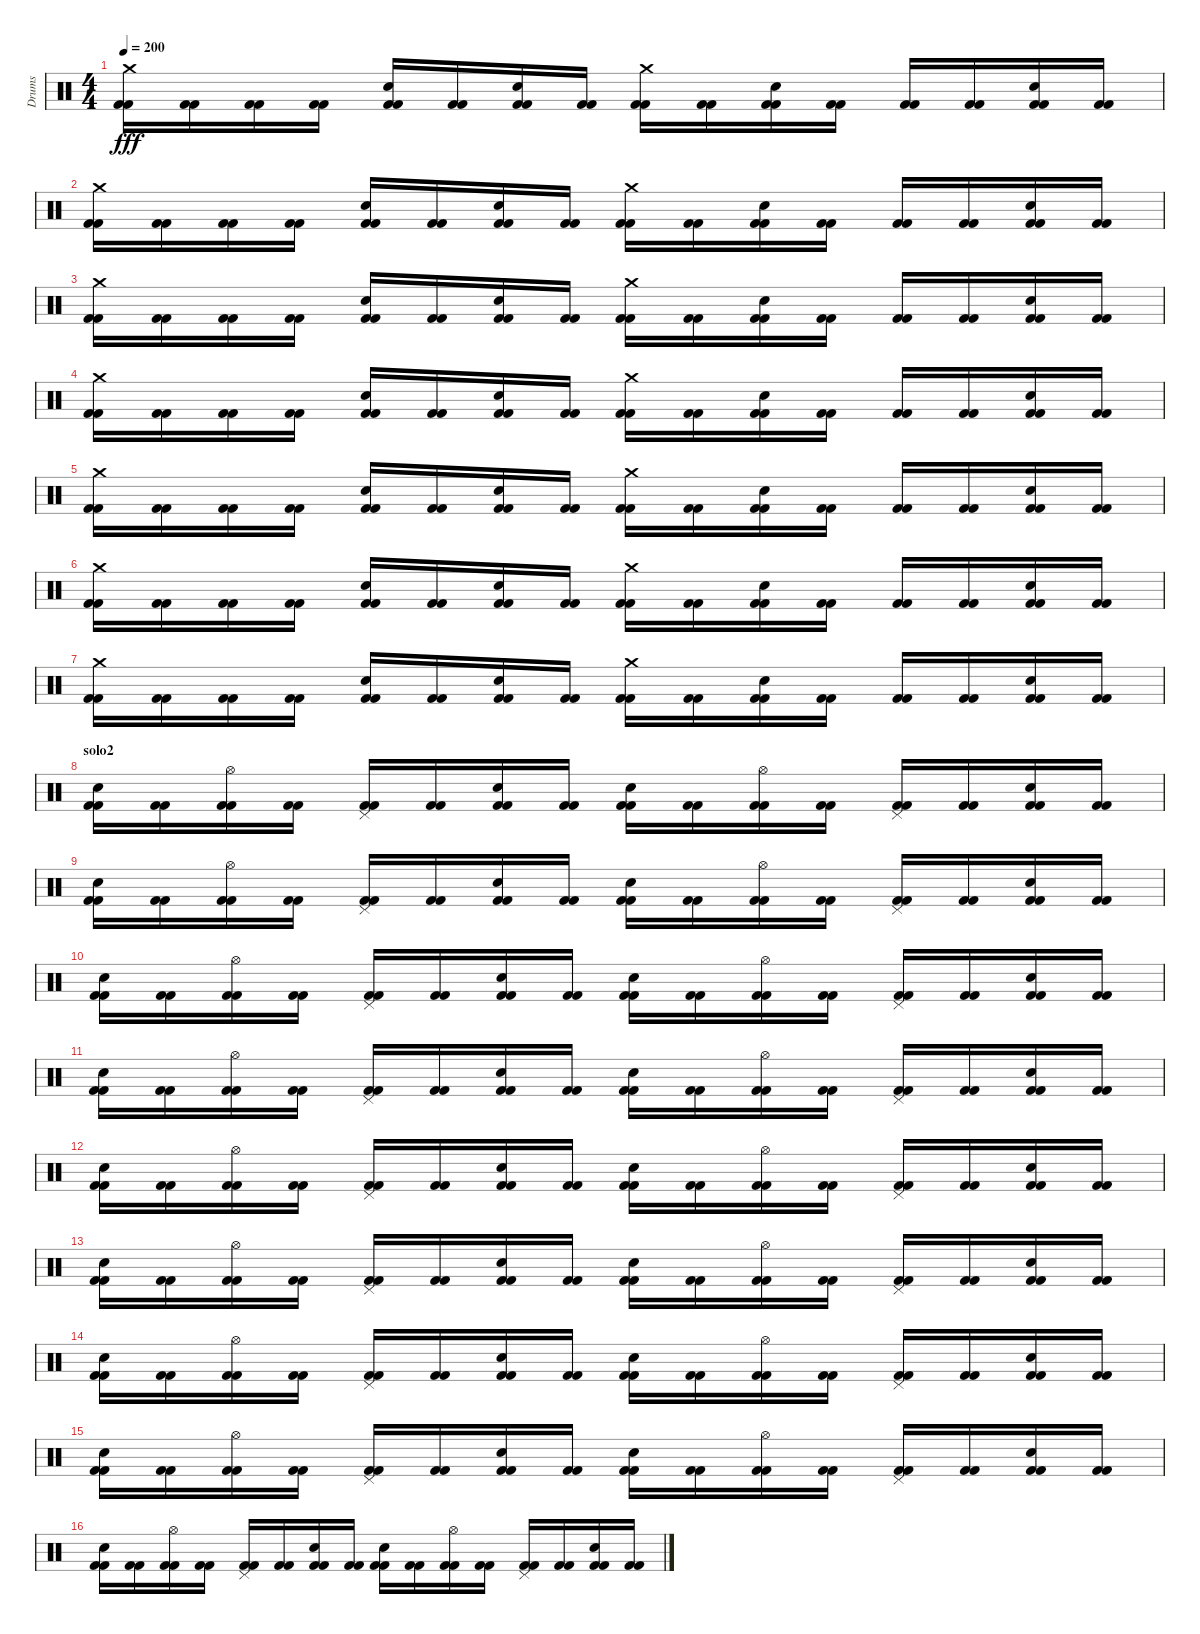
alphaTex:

\track ("Drums" "Drums") {instrument percussion}
\staff {score}
\articulation defaults
\ts (4 4)
\tempo 200
\clef neutral
\ks c
("Crash medium (hit)" "Kick (hit) 2" "Kick (hit) 2").16{dy fff} ("Kick (hit) 2" "Kick (hit) 2").16 ("Kick (hit) 2" "Kick (hit) 2").16 ("Kick (hit) 2" "Kick (hit) 2").16 ("Electric Snare (hit)" "Kick (hit) 2" "Kick (hit) 2").16 ("Kick (hit) 2" "Kick (hit) 2").16 ("Electric Snare (hit)" "Kick (hit) 2" "Kick (hit) 2").16 ("Kick (hit) 2" "Kick (hit) 2").16 ("Crash medium (hit)" "Kick (hit) 2" "Kick (hit) 2").16 ("Kick (hit) 2" "Kick (hit) 2").16 ("Electric Snare (hit)" "Kick (hit) 2" "Kick (hit) 2").16 ("Kick (hit) 2" "Kick (hit) 2").16 ("Kick (hit) 2" "Kick (hit) 2").16 ("Kick (hit) 2" "Kick (hit) 2").16 ("Electric Snare (hit)" "Kick (hit) 2" "Kick (hit) 2").16 ("Kick (hit) 2" "Kick (hit) 2").16 |
("Crash medium (hit)" "Kick (hit) 2" "Kick (hit) 2").16 ("Kick (hit) 2" "Kick (hit) 2").16 ("Kick (hit) 2" "Kick (hit) 2").16 ("Kick (hit) 2" "Kick (hit) 2").16 ("Electric Snare (hit)" "Kick (hit) 2" "Kick (hit) 2").16 ("Kick (hit) 2" "Kick (hit) 2").16 ("Electric Snare (hit)" "Kick (hit) 2" "Kick (hit) 2").16 ("Kick (hit) 2" "Kick (hit) 2").16 ("Crash medium (hit)" "Kick (hit) 2" "Kick (hit) 2").16 ("Kick (hit) 2" "Kick (hit) 2").16 ("Electric Snare (hit)" "Kick (hit) 2" "Kick (hit) 2").16 ("Kick (hit) 2" "Kick (hit) 2").16 ("Kick (hit) 2" "Kick (hit) 2").16 ("Kick (hit) 2" "Kick (hit) 2").16 ("Electric Snare (hit)" "Kick (hit) 2" "Kick (hit) 2").16 ("Kick (hit) 2" "Kick (hit) 2").16 |
("Crash medium (hit)" "Kick (hit) 2" "Kick (hit) 2").16 ("Kick (hit) 2" "Kick (hit) 2").16 ("Kick (hit) 2" "Kick (hit) 2").16 ("Kick (hit) 2" "Kick (hit) 2").16 ("Electric Snare (hit)" "Kick (hit) 2" "Kick (hit) 2").16 ("Kick (hit) 2" "Kick (hit) 2").16 ("Electric Snare (hit)" "Kick (hit) 2" "Kick (hit) 2").16 ("Kick (hit) 2" "Kick (hit) 2").16 ("Crash medium (hit)" "Kick (hit) 2" "Kick (hit) 2").16 ("Kick (hit) 2" "Kick (hit) 2").16 ("Electric Snare (hit)" "Kick (hit) 2" "Kick (hit) 2").16 ("Kick (hit) 2" "Kick (hit) 2").16 ("Kick (hit) 2" "Kick (hit) 2").16 ("Kick (hit) 2" "Kick (hit) 2").16 ("Electric Snare (hit)" "Kick (hit) 2" "Kick (hit) 2").16 ("Kick (hit) 2" "Kick (hit) 2").16 |
("Crash medium (hit)" "Kick (hit) 2" "Kick (hit) 2").16 ("Kick (hit) 2" "Kick (hit) 2").16 ("Kick (hit) 2" "Kick (hit) 2").16 ("Kick (hit) 2" "Kick (hit) 2").16 ("Electric Snare (hit)" "Kick (hit) 2" "Kick (hit) 2").16 ("Kick (hit) 2" "Kick (hit) 2").16 ("Electric Snare (hit)" "Kick (hit) 2" "Kick (hit) 2").16 ("Kick (hit) 2" "Kick (hit) 2").16 ("Crash medium (hit)" "Kick (hit) 2" "Kick (hit) 2").16 ("Kick (hit) 2" "Kick (hit) 2").16 ("Electric Snare (hit)" "Kick (hit) 2" "Kick (hit) 2").16 ("Kick (hit) 2" "Kick (hit) 2").16 ("Kick (hit) 2" "Kick (hit) 2").16 ("Kick (hit) 2" "Kick (hit) 2").16 ("Electric Snare (hit)" "Kick (hit) 2" "Kick (hit) 2").16 ("Kick (hit) 2" "Kick (hit) 2").16 |
("Crash medium (hit)" "Kick (hit) 2" "Kick (hit) 2").16 ("Kick (hit) 2" "Kick (hit) 2").16 ("Kick (hit) 2" "Kick (hit) 2").16 ("Kick (hit) 2" "Kick (hit) 2").16 ("Electric Snare (hit)" "Kick (hit) 2" "Kick (hit) 2").16 ("Kick (hit) 2" "Kick (hit) 2").16 ("Electric Snare (hit)" "Kick (hit) 2" "Kick (hit) 2").16 ("Kick (hit) 2" "Kick (hit) 2").16 ("Crash medium (hit)" "Kick (hit) 2" "Kick (hit) 2").16 ("Kick (hit) 2" "Kick (hit) 2").16 ("Electric Snare (hit)" "Kick (hit) 2" "Kick (hit) 2").16 ("Kick (hit) 2" "Kick (hit) 2").16 ("Kick (hit) 2" "Kick (hit) 2").16 ("Kick (hit) 2" "Kick (hit) 2").16 ("Electric Snare (hit)" "Kick (hit) 2" "Kick (hit) 2").16 ("Kick (hit) 2" "Kick (hit) 2").16 |
("Crash medium (hit)" "Kick (hit) 2" "Kick (hit) 2").16 ("Kick (hit) 2" "Kick (hit) 2").16 ("Kick (hit) 2" "Kick (hit) 2").16 ("Kick (hit) 2" "Kick (hit) 2").16 ("Electric Snare (hit)" "Kick (hit) 2" "Kick (hit) 2").16 ("Kick (hit) 2" "Kick (hit) 2").16 ("Electric Snare (hit)" "Kick (hit) 2" "Kick (hit) 2").16 ("Kick (hit) 2" "Kick (hit) 2").16 ("Crash medium (hit)" "Kick (hit) 2" "Kick (hit) 2").16 ("Kick (hit) 2" "Kick (hit) 2").16 ("Electric Snare (hit)" "Kick (hit) 2" "Kick (hit) 2").16 ("Kick (hit) 2" "Kick (hit) 2").16 ("Kick (hit) 2" "Kick (hit) 2").16 ("Kick (hit) 2" "Kick (hit) 2").16 ("Electric Snare (hit)" "Kick (hit) 2" "Kick (hit) 2").16 ("Kick (hit) 2" "Kick (hit) 2").16 |
("Crash medium (hit)" "Kick (hit) 2" "Kick (hit) 2").16 ("Kick (hit) 2" "Kick (hit) 2").16 ("Kick (hit) 2" "Kick (hit) 2").16 ("Kick (hit) 2" "Kick (hit) 2").16 ("Electric Snare (hit)" "Kick (hit) 2" "Kick (hit) 2").16 ("Kick (hit) 2" "Kick (hit) 2").16 ("Electric Snare (hit)" "Kick (hit) 2" "Kick (hit) 2").16 ("Kick (hit) 2" "Kick (hit) 2").16 ("Crash medium (hit)" "Kick (hit) 2" "Kick (hit) 2").16 ("Kick (hit) 2" "Kick (hit) 2").16 ("Electric Snare (hit)" "Kick (hit) 2" "Kick (hit) 2").16 ("Kick (hit) 2" "Kick (hit) 2").16 ("Kick (hit) 2" "Kick (hit) 2").16 ("Kick (hit) 2" "Kick (hit) 2").16 ("Electric Snare (hit)" "Kick (hit) 2" "Kick (hit) 2").16 ("Kick (hit) 2" "Kick (hit) 2").16 |
\section ("" "solo2")
("Electric Snare (hit)" "Kick (hit) 2" "Kick (hit) 2").16 ("Kick (hit) 2" "Kick (hit) 2").16 ("Hi-Hat (open)" "Kick (hit) 2" "Kick (hit) 2").16 ("Kick (hit) 2" "Kick (hit) 2").16 ("Pedal Hi-Hat (hit)" "Kick (hit) 2" "Kick (hit) 2").16 ("Kick (hit) 2" "Kick (hit) 2").16 ("Electric Snare (hit)" "Kick (hit) 2" "Kick (hit) 2").16 ("Kick (hit) 2" "Kick (hit) 2").16 ("Electric Snare (hit)" "Kick (hit) 2" "Kick (hit) 2").16 ("Kick (hit) 2" "Kick (hit) 2").16 ("Hi-Hat (open)" "Kick (hit) 2" "Kick (hit) 2").16 ("Kick (hit) 2" "Kick (hit) 2").16 ("Pedal Hi-Hat (hit)" "Kick (hit) 2" "Kick (hit) 2").16 ("Kick (hit) 2" "Kick (hit) 2").16 ("Electric Snare (hit)" "Kick (hit) 2" "Kick (hit) 2").16 ("Kick (hit) 2" "Kick (hit) 2").16 |
("Electric Snare (hit)" "Kick (hit) 2" "Kick (hit) 2").16 ("Kick (hit) 2" "Kick (hit) 2").16 ("Hi-Hat (open)" "Kick (hit) 2" "Kick (hit) 2").16 ("Kick (hit) 2" "Kick (hit) 2").16 ("Pedal Hi-Hat (hit)" "Kick (hit) 2" "Kick (hit) 2").16 ("Kick (hit) 2" "Kick (hit) 2").16 ("Electric Snare (hit)" "Kick (hit) 2" "Kick (hit) 2").16 ("Kick (hit) 2" "Kick (hit) 2").16 ("Electric Snare (hit)" "Kick (hit) 2" "Kick (hit) 2").16 ("Kick (hit) 2" "Kick (hit) 2").16 ("Hi-Hat (open)" "Kick (hit) 2" "Kick (hit) 2").16 ("Kick (hit) 2" "Kick (hit) 2").16 ("Pedal Hi-Hat (hit)" "Kick (hit) 2" "Kick (hit) 2").16 ("Kick (hit) 2" "Kick (hit) 2").16 ("Electric Snare (hit)" "Kick (hit) 2" "Kick (hit) 2").16 ("Kick (hit) 2" "Kick (hit) 2").16 |
("Electric Snare (hit)" "Kick (hit) 2" "Kick (hit) 2").16 ("Kick (hit) 2" "Kick (hit) 2").16 ("Hi-Hat (open)" "Kick (hit) 2" "Kick (hit) 2").16 ("Kick (hit) 2" "Kick (hit) 2").16 ("Pedal Hi-Hat (hit)" "Kick (hit) 2" "Kick (hit) 2").16 ("Kick (hit) 2" "Kick (hit) 2").16 ("Electric Snare (hit)" "Kick (hit) 2" "Kick (hit) 2").16 ("Kick (hit) 2" "Kick (hit) 2").16 ("Electric Snare (hit)" "Kick (hit) 2" "Kick (hit) 2").16 ("Kick (hit) 2" "Kick (hit) 2").16 ("Hi-Hat (open)" "Kick (hit) 2" "Kick (hit) 2").16 ("Kick (hit) 2" "Kick (hit) 2").16 ("Pedal Hi-Hat (hit)" "Kick (hit) 2" "Kick (hit) 2").16 ("Kick (hit) 2" "Kick (hit) 2").16 ("Electric Snare (hit)" "Kick (hit) 2" "Kick (hit) 2").16 ("Kick (hit) 2" "Kick (hit) 2").16 |
("Electric Snare (hit)" "Kick (hit) 2" "Kick (hit) 2").16 ("Kick (hit) 2" "Kick (hit) 2").16 ("Hi-Hat (open)" "Kick (hit) 2" "Kick (hit) 2").16 ("Kick (hit) 2" "Kick (hit) 2").16 ("Pedal Hi-Hat (hit)" "Kick (hit) 2" "Kick (hit) 2").16 ("Kick (hit) 2" "Kick (hit) 2").16 ("Electric Snare (hit)" "Kick (hit) 2" "Kick (hit) 2").16 ("Kick (hit) 2" "Kick (hit) 2").16 ("Electric Snare (hit)" "Kick (hit) 2" "Kick (hit) 2").16 ("Kick (hit) 2" "Kick (hit) 2").16 ("Hi-Hat (open)" "Kick (hit) 2" "Kick (hit) 2").16 ("Kick (hit) 2" "Kick (hit) 2").16 ("Pedal Hi-Hat (hit)" "Kick (hit) 2" "Kick (hit) 2").16 ("Kick (hit) 2" "Kick (hit) 2").16 ("Electric Snare (hit)" "Kick (hit) 2" "Kick (hit) 2").16 ("Kick (hit) 2" "Kick (hit) 2").16 |
("Electric Snare (hit)" "Kick (hit) 2" "Kick (hit) 2").16 ("Kick (hit) 2" "Kick (hit) 2").16 ("Hi-Hat (open)" "Kick (hit) 2" "Kick (hit) 2").16 ("Kick (hit) 2" "Kick (hit) 2").16 ("Pedal Hi-Hat (hit)" "Kick (hit) 2" "Kick (hit) 2").16 ("Kick (hit) 2" "Kick (hit) 2").16 ("Electric Snare (hit)" "Kick (hit) 2" "Kick (hit) 2").16 ("Kick (hit) 2" "Kick (hit) 2").16 ("Electric Snare (hit)" "Kick (hit) 2" "Kick (hit) 2").16 ("Kick (hit) 2" "Kick (hit) 2").16 ("Hi-Hat (open)" "Kick (hit) 2" "Kick (hit) 2").16 ("Kick (hit) 2" "Kick (hit) 2").16 ("Pedal Hi-Hat (hit)" "Kick (hit) 2" "Kick (hit) 2").16 ("Kick (hit) 2" "Kick (hit) 2").16 ("Electric Snare (hit)" "Kick (hit) 2" "Kick (hit) 2").16 ("Kick (hit) 2" "Kick (hit) 2").16 |
("Electric Snare (hit)" "Kick (hit) 2" "Kick (hit) 2").16 ("Kick (hit) 2" "Kick (hit) 2").16 ("Hi-Hat (open)" "Kick (hit) 2" "Kick (hit) 2").16 ("Kick (hit) 2" "Kick (hit) 2").16 ("Pedal Hi-Hat (hit)" "Kick (hit) 2" "Kick (hit) 2").16 ("Kick (hit) 2" "Kick (hit) 2").16 ("Electric Snare (hit)" "Kick (hit) 2" "Kick (hit) 2").16 ("Kick (hit) 2" "Kick (hit) 2").16 ("Electric Snare (hit)" "Kick (hit) 2" "Kick (hit) 2").16 ("Kick (hit) 2" "Kick (hit) 2").16 ("Hi-Hat (open)" "Kick (hit) 2" "Kick (hit) 2").16 ("Kick (hit) 2" "Kick (hit) 2").16 ("Pedal Hi-Hat (hit)" "Kick (hit) 2" "Kick (hit) 2").16 ("Kick (hit) 2" "Kick (hit) 2").16 ("Electric Snare (hit)" "Kick (hit) 2" "Kick (hit) 2").16 ("Kick (hit) 2" "Kick (hit) 2").16 |
("Electric Snare (hit)" "Kick (hit) 2" "Kick (hit) 2").16 ("Kick (hit) 2" "Kick (hit) 2").16 ("Hi-Hat (open)" "Kick (hit) 2" "Kick (hit) 2").16 ("Kick (hit) 2" "Kick (hit) 2").16 ("Pedal Hi-Hat (hit)" "Kick (hit) 2" "Kick (hit) 2").16 ("Kick (hit) 2" "Kick (hit) 2").16 ("Electric Snare (hit)" "Kick (hit) 2" "Kick (hit) 2").16 ("Kick (hit) 2" "Kick (hit) 2").16 ("Electric Snare (hit)" "Kick (hit) 2" "Kick (hit) 2").16 ("Kick (hit) 2" "Kick (hit) 2").16 ("Hi-Hat (open)" "Kick (hit) 2" "Kick (hit) 2").16 ("Kick (hit) 2" "Kick (hit) 2").16 ("Pedal Hi-Hat (hit)" "Kick (hit) 2" "Kick (hit) 2").16 ("Kick (hit) 2" "Kick (hit) 2").16 ("Electric Snare (hit)" "Kick (hit) 2" "Kick (hit) 2").16 ("Kick (hit) 2" "Kick (hit) 2").16 |
("Electric Snare (hit)" "Kick (hit) 2" "Kick (hit) 2").16 ("Kick (hit) 2" "Kick (hit) 2").16 ("Hi-Hat (open)" "Kick (hit) 2" "Kick (hit) 2").16 ("Kick (hit) 2" "Kick (hit) 2").16 ("Pedal Hi-Hat (hit)" "Kick (hit) 2" "Kick (hit) 2").16 ("Kick (hit) 2" "Kick (hit) 2").16 ("Electric Snare (hit)" "Kick (hit) 2" "Kick (hit) 2").16 ("Kick (hit) 2" "Kick (hit) 2").16 ("Electric Snare (hit)" "Kick (hit) 2" "Kick (hit) 2").16 ("Kick (hit) 2" "Kick (hit) 2").16 ("Hi-Hat (open)" "Kick (hit) 2" "Kick (hit) 2").16 ("Kick (hit) 2" "Kick (hit) 2").16 ("Pedal Hi-Hat (hit)" "Kick (hit) 2" "Kick (hit) 2").16 ("Kick (hit) 2" "Kick (hit) 2").16 ("Electric Snare (hit)" "Kick (hit) 2" "Kick (hit) 2").16 ("Kick (hit) 2" "Kick (hit) 2").16 |
("Electric Snare (hit)" "Kick (hit) 2" "Kick (hit) 2").16 ("Kick (hit) 2" "Kick (hit) 2").16 ("Hi-Hat (open)" "Kick (hit) 2" "Kick (hit) 2").16 ("Kick (hit) 2" "Kick (hit) 2").16 ("Pedal Hi-Hat (hit)" "Kick (hit) 2" "Kick (hit) 2").16 ("Kick (hit) 2" "Kick (hit) 2").16 ("Electric Snare (hit)" "Kick (hit) 2" "Kick (hit) 2").16 ("Kick (hit) 2" "Kick (hit) 2").16 ("Electric Snare (hit)" "Kick (hit) 2" "Kick (hit) 2").16 ("Kick (hit) 2" "Kick (hit) 2").16 ("Hi-Hat (open)" "Kick (hit) 2" "Kick (hit) 2").16 ("Kick (hit) 2" "Kick (hit) 2").16 ("Pedal Hi-Hat (hit)" "Kick (hit) 2" "Kick (hit) 2").16 ("Kick (hit) 2" "Kick (hit) 2").16 ("Electric Snare (hit)" "Kick (hit) 2" "Kick (hit) 2").16 ("Kick (hit) 2" "Kick (hit) 2").16
